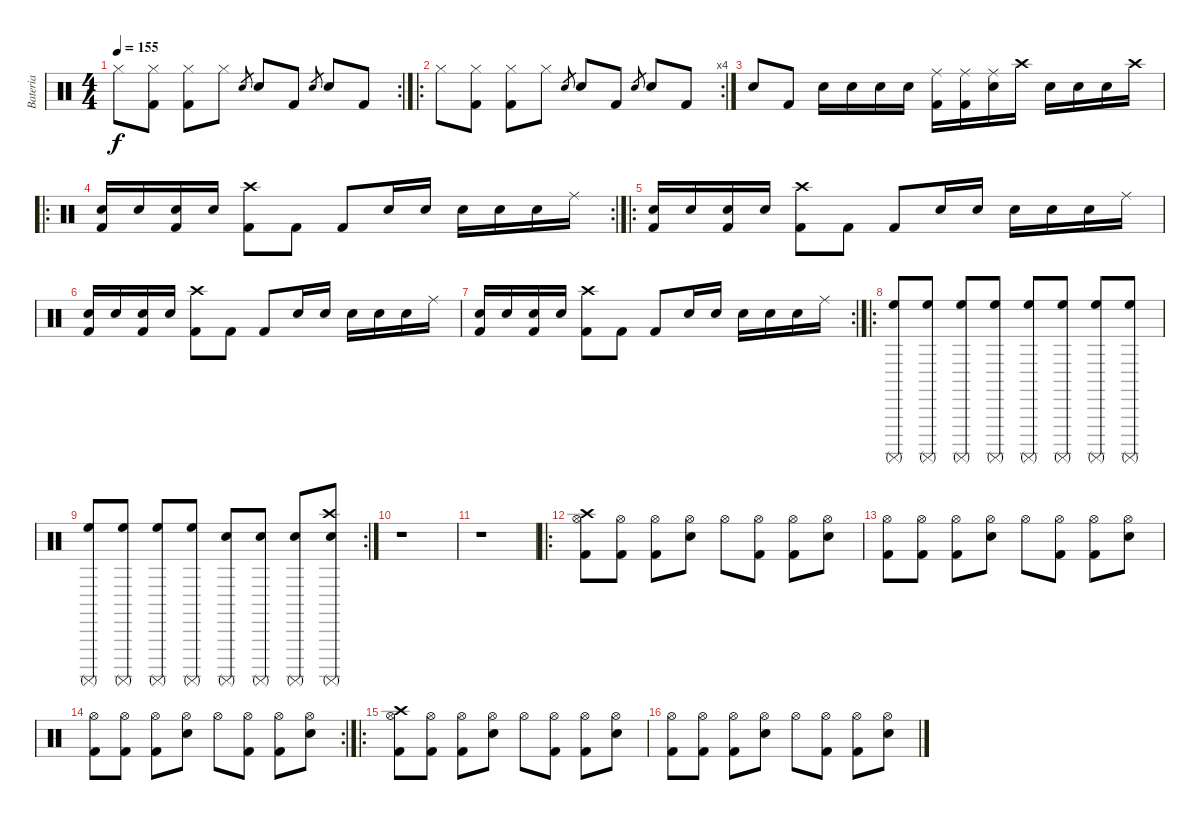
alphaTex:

\track ("Bateria" "Bateria") {instrument percussion}
\staff {score}
\articulation defaults
\rc 2
\ts (4 4)
\tempo 155
\clef neutral
\ks c "Hi-Hat (closed)".8{dy f}
("Hi-Hat (closed)" "Kick (hit) 2").8 ("Hi-Hat (closed)" "Kick (hit) 2").8 "Hi-Hat (closed)".8 "Snare (hit) 2".8{gr} "Snare (hit) 2".8 "Kick (hit) 2".8 "Snare (hit) 2".8{gr} "Snare (hit) 2".8 "Kick (hit) 2".8 |
\ro
\rc 4 "Hi-Hat (closed)".8
("Hi-Hat (closed)" "Kick (hit) 2").8 ("Hi-Hat (closed)" "Kick (hit) 2").8 "Hi-Hat (closed)".8 "Snare (hit) 2".8{gr} "Snare (hit) 2".8 "Kick (hit) 2".8 "Snare (hit) 2".8{gr} "Snare (hit) 2".8 "Kick (hit) 2".8 |
"Snare (hit) 2".8 "Kick (hit) 2".8 "Snare (hit) 2".16 "Snare (hit) 2".16 "Snare (hit) 2".16 "Snare (hit) 2".16 ("Ride (middle)" "Kick (hit) 2").16 ("Ride (middle)" "Kick (hit) 2").16 ("Ride (middle)" "Snare (hit) 2").16 "Crash high (hit)".16 "Snare (hit) 2".16 "Snare (hit) 2".16 "Snare (hit) 2".16 "Crash high (hit)".16 |
\ro
\rc 2
("Kick (hit) 2" "Snare (hit) 2").16 "Snare (hit) 2".16 ("Kick (hit) 2" "Snare (hit) 2").16 "Snare (hit) 2".16 ("Crash high (hit)" "Kick (hit) 2").8 "Kick (hit) 2".8 "Kick (hit) 2".8 "Snare (hit) 2".16 "Snare (hit) 2".16 "Snare (hit) 2".16 "Snare (hit) 2".16 "Snare (hit) 2".16 "Ride (middle)".16 |
\ro
("Kick (hit) 2" "Snare (hit) 2").16 "Snare (hit) 2".16 ("Kick (hit) 2" "Snare (hit) 2").16 "Snare (hit) 2".16 ("Crash high (hit)" "Kick (hit) 2").8 "Kick (hit) 2".8 "Kick (hit) 2".8 "Snare (hit) 2".16 "Snare (hit) 2".16 "Snare (hit) 2".16 "Snare (hit) 2".16 "Snare (hit) 2".16 "Ride (middle)".16 |
("Kick (hit) 2" "Snare (hit) 2").16 "Snare (hit) 2".16 ("Kick (hit) 2" "Snare (hit) 2").16 "Snare (hit) 2".16 ("Crash high (hit)" "Kick (hit) 2").8 "Kick (hit) 2".8 "Kick (hit) 2".8 "Snare (hit) 2".16 "Snare (hit) 2".16 "Snare (hit) 2".16 "Snare (hit) 2".16 "Snare (hit) 2".16 "Ride (middle)".16 |
\rc 2
("Kick (hit) 2" "Snare (hit) 2").16 "Snare (hit) 2".16 ("Kick (hit) 2" "Snare (hit) 2").16 "Snare (hit) 2".16 ("Crash high (hit)" "Kick (hit) 2").8 "Kick (hit) 2".8 "Kick (hit) 2".8 "Snare (hit) 2".16 "Snare (hit) 2".16 "Snare (hit) 2".16 "Snare (hit) 2".16 "Snare (hit) 2".16 "Ride (middle)".16 |
\ro
("High Floor Tom (hit)" "Surdo (mute)").8 ("High Floor Tom (hit)" "Surdo (mute)").8 ("High Floor Tom (hit)" "Surdo (mute)").8 ("High Floor Tom (hit)" "Surdo (mute)").8 ("High Floor Tom (hit)" "Surdo (mute)").8 ("High Floor Tom (hit)" "Surdo (mute)").8 ("High Floor Tom (hit)" "Surdo (mute)").8 ("High Floor Tom (hit)" "Surdo (mute)").8 |
\rc 2
("High Floor Tom (hit)" "Surdo (mute)").8 ("High Floor Tom (hit)" "Surdo (mute)").8 ("High Floor Tom (hit)" "Surdo (mute)").8 ("High Floor Tom (hit)" "Surdo (mute)").8 ("Snare (hit) 2" "Surdo (mute)").8 ("Snare (hit) 2" "Surdo (mute)").8 ("Snare (hit) 2" "Surdo (mute)").8 ("Crash high (hit)" "Snare (hit) 2" "Surdo (mute)").8 |
r.1 |
r.1 |
\ro
("Crash high (hit)" "Hi-Hat (open)" "Kick (hit) 2").8 ("Hi-Hat (open)" "Kick (hit) 2").8 ("Hi-Hat (open)" "Kick (hit) 2").8 ("Snare (hit) 2" "Hi-Hat (open)").8 "Hi-Hat (open)".8 ("Hi-Hat (open)" "Kick (hit) 2").8 ("Hi-Hat (open)" "Kick (hit) 2").8 ("Snare (hit) 2" "Hi-Hat (open)").8 |
("Hi-Hat (open)" "Kick (hit) 2").8 ("Hi-Hat (open)" "Kick (hit) 2").8 ("Hi-Hat (open)" "Kick (hit) 2").8 ("Snare (hit) 2" "Hi-Hat (open)").8 "Hi-Hat (open)".8 ("Hi-Hat (open)" "Kick (hit) 2").8 ("Hi-Hat (open)" "Kick (hit) 2").8 ("Snare (hit) 2" "Hi-Hat (open)").8 |
\rc 2
("Hi-Hat (open)" "Kick (hit) 2").8 ("Hi-Hat (open)" "Kick (hit) 2").8 ("Hi-Hat (open)" "Kick (hit) 2").8 ("Snare (hit) 2" "Hi-Hat (open)").8 "Hi-Hat (open)".8 ("Hi-Hat (open)" "Kick (hit) 2").8 ("Hi-Hat (open)" "Kick (hit) 2").8 ("Snare (hit) 2" "Hi-Hat (open)").8 |
\ro
("Crash high (hit)" "Hi-Hat (open)" "Kick (hit) 2").8 ("Hi-Hat (open)" "Kick (hit) 2").8 ("Hi-Hat (open)" "Kick (hit) 2").8 ("Snare (hit) 2" "Hi-Hat (open)").8 "Hi-Hat (open)".8 ("Hi-Hat (open)" "Kick (hit) 2").8 ("Hi-Hat (open)" "Kick (hit) 2").8 ("Snare (hit) 2" "Hi-Hat (open)").8 |
("Hi-Hat (open)" "Kick (hit) 2").8 ("Hi-Hat (open)" "Kick (hit) 2").8 ("Hi-Hat (open)" "Kick (hit) 2").8 ("Snare (hit) 2" "Hi-Hat (open)").8 "Hi-Hat (open)".8 ("Hi-Hat (open)" "Kick (hit) 2").8 ("Hi-Hat (open)" "Kick (hit) 2").8 ("Snare (hit) 2" "Hi-Hat (open)").8
